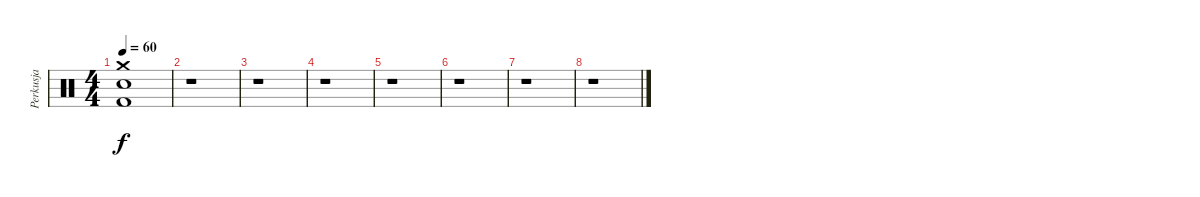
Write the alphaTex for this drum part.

\track ("Perkusja" "Perkusja") {instrument percussion}
\staff {score}
\articulation defaults
\ts (4 4)
\tempo 60
\clef neutral
\ks c
("Kick (hit) 2" "Electric Snare (hit)" "Crash medium (hit)").1{dy f} |
r.1 |
r.1 |
r.1 |
r.1 |
r.1 |
r.1 |
r.1
